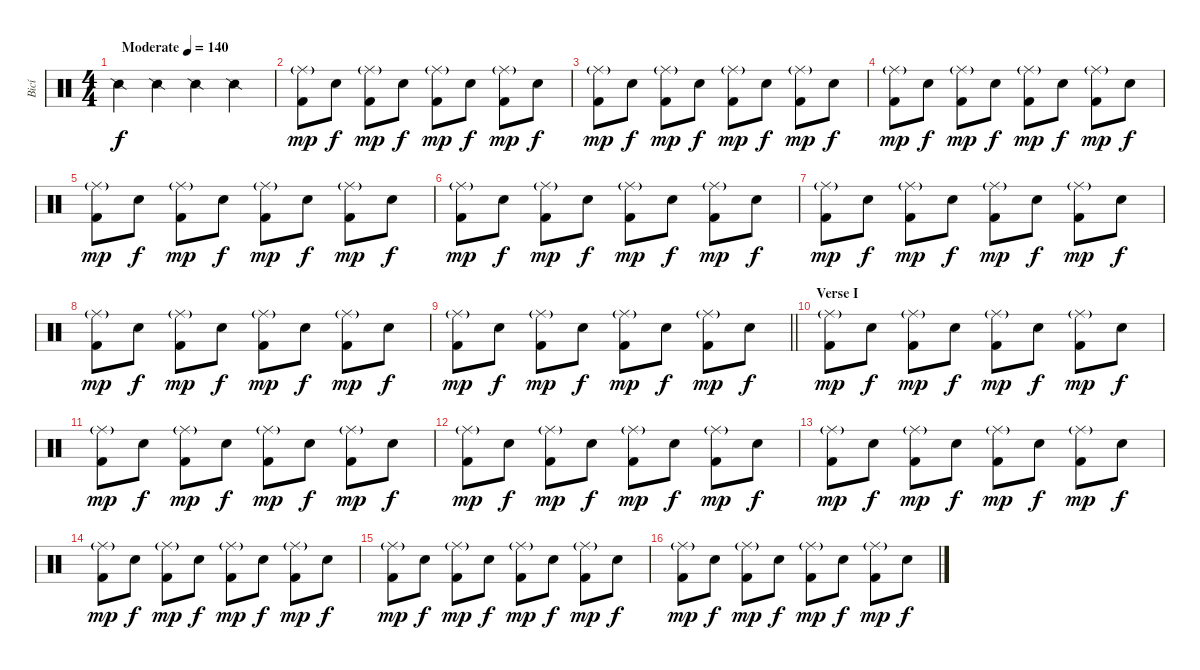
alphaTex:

\track ("Bicí" "Bicí") {instrument percussion}
\staff {score}
\articulation defaults
\ts (4 4)
\tempo (140 "Moderate")
\clef neutral
\ks c "Snare (side stick) 2".4{dy f} "Snare (side stick) 2".4 "Snare (side stick) 2".4 "Snare (side stick) 2".4
|
("Ride (middle)"{g} "Kick (hit) 2").8{dy mp} "Snare (hit)".8{dy f} ("Ride (middle)"{g} "Kick (hit) 2").8{dy mp} "Snare (hit)".8{dy f} ("Ride (middle)"{g} "Kick (hit) 2").8{dy mp} "Snare (hit)".8{dy f} ("Ride (middle)"{g} "Kick (hit) 2").8{dy mp} "Snare (hit)".8{dy f} |
("Ride (middle)"{g} "Kick (hit) 2").8{dy mp} "Snare (hit)".8{dy f} ("Ride (middle)"{g} "Kick (hit) 2").8{dy mp} "Snare (hit)".8{dy f} ("Ride (middle)"{g} "Kick (hit) 2").8{dy mp} "Snare (hit)".8{dy f} ("Ride (middle)"{g} "Kick (hit) 2").8{dy mp} "Snare (hit)".8{dy f} |
("Ride (middle)"{g} "Kick (hit) 2").8{dy mp} "Snare (hit)".8{dy f} ("Ride (middle)"{g} "Kick (hit) 2").8{dy mp} "Snare (hit)".8{dy f} ("Ride (middle)"{g} "Kick (hit) 2").8{dy mp} "Snare (hit)".8{dy f} ("Ride (middle)"{g} "Kick (hit) 2").8{dy mp} "Snare (hit)".8{dy f} |
("Ride (middle)"{g} "Kick (hit) 2").8{dy mp} "Snare (hit)".8{dy f} ("Ride (middle)"{g} "Kick (hit) 2").8{dy mp} "Snare (hit)".8{dy f} ("Ride (middle)"{g} "Kick (hit) 2").8{dy mp} "Snare (hit)".8{dy f} ("Ride (middle)"{g} "Kick (hit) 2").8{dy mp} "Snare (hit)".8{dy f} |
("Ride (middle)"{g} "Kick (hit) 2").8{dy mp} "Snare (hit)".8{dy f} ("Ride (middle)"{g} "Kick (hit) 2").8{dy mp} "Snare (hit)".8{dy f} ("Ride (middle)"{g} "Kick (hit) 2").8{dy mp} "Snare (hit)".8{dy f} ("Ride (middle)"{g} "Kick (hit) 2").8{dy mp} "Snare (hit)".8{dy f} |
("Ride (middle)"{g} "Kick (hit) 2").8{dy mp} "Snare (hit)".8{dy f} ("Ride (middle)"{g} "Kick (hit) 2").8{dy mp} "Snare (hit)".8{dy f} ("Ride (middle)"{g} "Kick (hit) 2").8{dy mp} "Snare (hit)".8{dy f} ("Ride (middle)"{g} "Kick (hit) 2").8{dy mp} "Snare (hit)".8{dy f} |
("Ride (middle)"{g} "Kick (hit) 2").8{dy mp} "Snare (hit)".8{dy f} ("Ride (middle)"{g} "Kick (hit) 2").8{dy mp} "Snare (hit)".8{dy f} ("Ride (middle)"{g} "Kick (hit) 2").8{dy mp} "Snare (hit)".8{dy f} ("Ride (middle)"{g} "Kick (hit) 2").8{dy mp} "Snare (hit)".8{dy f} |
\barLineRight lightlight
("Ride (middle)"{g} "Kick (hit) 2").8{dy mp} "Snare (hit)".8{dy f} ("Ride (middle)"{g} "Kick (hit) 2").8{dy mp} "Snare (hit)".8{dy f} ("Ride (middle)"{g} "Kick (hit) 2").8{dy mp} "Snare (hit)".8{dy f} ("Ride (middle)"{g} "Kick (hit) 2").8{dy mp} "Snare (hit)".8{dy f} |
\section ("" "Verse I")
("Ride (middle)"{g} "Kick (hit) 2").8{dy mp} "Snare (hit)".8{dy f} ("Ride (middle)"{g} "Kick (hit) 2").8{dy mp} "Snare (hit)".8{dy f} ("Ride (middle)"{g} "Kick (hit) 2").8{dy mp} "Snare (hit)".8{dy f} ("Ride (middle)"{g} "Kick (hit) 2").8{dy mp} "Snare (hit)".8{dy f} |
("Ride (middle)"{g} "Kick (hit) 2").8{dy mp} "Snare (hit)".8{dy f} ("Ride (middle)"{g} "Kick (hit) 2").8{dy mp} "Snare (hit)".8{dy f} ("Ride (middle)"{g} "Kick (hit) 2").8{dy mp} "Snare (hit)".8{dy f} ("Ride (middle)"{g} "Kick (hit) 2").8{dy mp} "Snare (hit)".8{dy f} |
("Ride (middle)"{g} "Kick (hit) 2").8{dy mp} "Snare (hit)".8{dy f} ("Ride (middle)"{g} "Kick (hit) 2").8{dy mp} "Snare (hit)".8{dy f} ("Ride (middle)"{g} "Kick (hit) 2").8{dy mp} "Snare (hit)".8{dy f} ("Ride (middle)"{g} "Kick (hit) 2").8{dy mp} "Snare (hit)".8{dy f} |
("Ride (middle)"{g} "Kick (hit) 2").8{dy mp} "Snare (hit)".8{dy f} ("Ride (middle)"{g} "Kick (hit) 2").8{dy mp} "Snare (hit)".8{dy f} ("Ride (middle)"{g} "Kick (hit) 2").8{dy mp} "Snare (hit)".8{dy f} ("Ride (middle)"{g} "Kick (hit) 2").8{dy mp} "Snare (hit)".8{dy f} |
("Ride (middle)"{g} "Kick (hit) 2").8{dy mp} "Snare (hit)".8{dy f} ("Ride (middle)"{g} "Kick (hit) 2").8{dy mp} "Snare (hit)".8{dy f} ("Ride (middle)"{g} "Kick (hit) 2").8{dy mp} "Snare (hit)".8{dy f} ("Ride (middle)"{g} "Kick (hit) 2").8{dy mp} "Snare (hit)".8{dy f} |
("Ride (middle)"{g} "Kick (hit) 2").8{dy mp} "Snare (hit)".8{dy f} ("Ride (middle)"{g} "Kick (hit) 2").8{dy mp} "Snare (hit)".8{dy f} ("Ride (middle)"{g} "Kick (hit) 2").8{dy mp} "Snare (hit)".8{dy f} ("Ride (middle)"{g} "Kick (hit) 2").8{dy mp} "Snare (hit)".8{dy f} |
("Ride (middle)"{g} "Kick (hit) 2").8{dy mp} "Snare (hit)".8{dy f} ("Ride (middle)"{g} "Kick (hit) 2").8{dy mp} "Snare (hit)".8{dy f} ("Ride (middle)"{g} "Kick (hit) 2").8{dy mp} "Snare (hit)".8{dy f} ("Ride (middle)"{g} "Kick (hit) 2").8{dy mp} "Snare (hit)".8{dy f}
